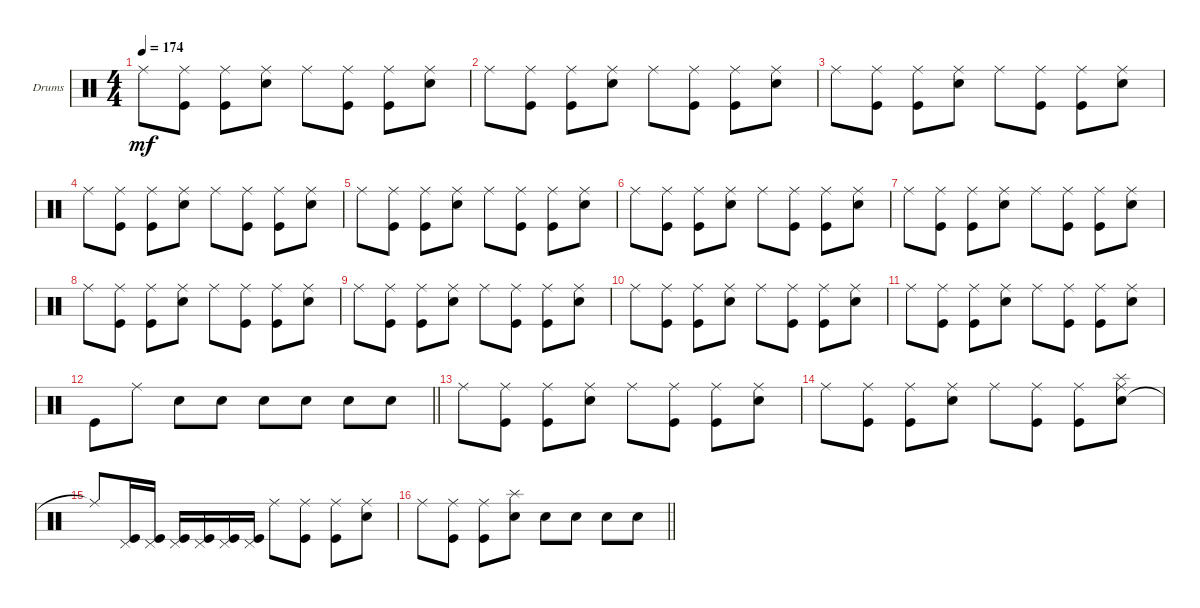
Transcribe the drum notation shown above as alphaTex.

\bracketExtendMode groupsimilarinstruments
\firstSystemTrackNameOrientation horizontal
\otherSystemsTrackNameOrientation horizontal
\track ("Drumkit" "Drums") {instrument percussion}
\staff {score}
\articulation defaults
\ts (4 4)
\tempo 174
\clef neutral
\scale
0.333333
\ks c "Ride (middle)".8{dy mf}
("Kick (hit)" "Ride (middle)").8 ("Kick (hit)" "Ride (middle)").8 ("Snare (hit) 2" "Ride (middle)").8 "Ride (middle)".8 ("Ride (middle)" "Kick (hit)").8 ("Kick (hit)" "Ride (middle)").8 ("Snare (hit) 2" "Ride (middle)").8 |
\scale
0.333333 "Ride (middle)".8 ("Kick (hit)" "Ride (middle)").8 ("Kick (hit)" "Ride (middle)").8 ("Snare (hit) 2" "Ride (middle)").8 "Ride (middle)".8 ("Ride (middle)" "Kick (hit)").8 ("Kick (hit)" "Ride (middle)").8 ("Snare (hit) 2" "Ride (middle)").8 |
\scale
0.333333 "Ride (middle)".8 ("Kick (hit)" "Ride (middle)").8 ("Kick (hit)" "Ride (middle)").8 ("Snare (hit) 2" "Ride (middle)").8 "Ride (middle)".8 ("Ride (middle)" "Kick (hit)").8 ("Kick (hit)" "Ride (middle)").8 ("Snare (hit) 2" "Ride (middle)").8 |
\scale
0.333333 "Ride (middle)".8 ("Kick (hit)" "Ride (middle)").8 ("Kick (hit)" "Ride (middle)").8 ("Snare (hit) 2" "Ride (middle)").8 "Ride (middle)".8 ("Ride (middle)" "Kick (hit)").8 ("Kick (hit)" "Ride (middle)").8 ("Snare (hit) 2" "Ride (middle)").8 |
\scale
0.333333 "Ride (middle)".8 ("Kick (hit)" "Ride (middle)").8 ("Kick (hit)" "Ride (middle)").8 ("Snare (hit) 2" "Ride (middle)").8 "Ride (middle)".8 ("Ride (middle)" "Kick (hit)").8 ("Kick (hit)" "Ride (middle)").8 ("Snare (hit) 2" "Ride (middle)").8 |
\scale
0.333333 "Ride (middle)".8 ("Kick (hit)" "Ride (middle)").8 ("Kick (hit)" "Ride (middle)").8 ("Snare (hit) 2" "Ride (middle)").8 "Ride (middle)".8 ("Ride (middle)" "Kick (hit)").8 ("Kick (hit)" "Ride (middle)").8 ("Snare (hit) 2" "Ride (middle)").8 |
\scale
0.333333 "Ride (middle)".8 ("Kick (hit)" "Ride (middle)").8 ("Kick (hit)" "Ride (middle)").8 ("Snare (hit) 2" "Ride (middle)").8 "Ride (middle)".8 ("Ride (middle)" "Kick (hit)").8 ("Kick (hit)" "Ride (middle)").8 ("Snare (hit) 2" "Ride (middle)").8 |
\scale
0.333333 "Ride (middle)".8 ("Kick (hit)" "Ride (middle)").8 ("Kick (hit)" "Ride (middle)").8 ("Snare (hit) 2" "Ride (middle)").8 "Ride (middle)".8 ("Ride (middle)" "Kick (hit)").8 ("Kick (hit)" "Ride (middle)").8 ("Snare (hit) 2" "Ride (middle)").8 |
\scale
0.333333 "Ride (middle)".8 ("Kick (hit)" "Ride (middle)").8 ("Kick (hit)" "Ride (middle)").8 ("Snare (hit) 2" "Ride (middle)").8 "Ride (middle)".8 ("Ride (middle)" "Kick (hit)").8 ("Kick (hit)" "Ride (middle)").8 ("Snare (hit) 2" "Ride (middle)").8 |
\scale
0.333333 "Ride (middle)".8 ("Kick (hit)" "Ride (middle)").8 ("Kick (hit)" "Ride (middle)").8 ("Snare (hit) 2" "Ride (middle)").8 "Ride (middle)".8 ("Ride (middle)" "Kick (hit)").8 ("Kick (hit)" "Ride (middle)").8 ("Snare (hit) 2" "Ride (middle)").8 |
\scale
0.333333 "Ride (middle)".8 ("Kick (hit)" "Ride (middle)").8 ("Kick (hit)" "Ride (middle)").8 ("Snare (hit) 2" "Ride (middle)").8 "Ride (middle)".8 ("Ride (middle)" "Kick (hit)").8 ("Kick (hit)" "Ride (middle)").8 ("Snare (hit) 2" "Ride (middle)").8 |
\scale
0.333333
\barLineRight lightlight "Kick (hit)".8 "Ride (middle)".8 "Snare (hit) 2".8 "Snare (hit) 2".8 "Snare (hit) 2".8 "Snare (hit) 2".8 "Snare (hit) 2".8 "Snare (hit) 2".8
|
\scale
0.333333 "Ride (middle)".8 ("Kick (hit)" "Ride (middle)").8 ("Kick (hit)" "Ride (middle)").8 ("Snare (hit) 2" "Ride (middle)").8 "Ride (middle)".8 ("Ride (middle)" "Kick (hit)").8 ("Kick (hit)" "Ride (middle)").8 ("Snare (hit) 2" "Ride (middle)").8 |
\scale
0.333333 "Ride (middle)".8 ("Kick (hit)" "Ride (middle)").8 ("Kick (hit)" "Ride (middle)").8 ("Snare (hit) 2" "Ride (middle)").8 "Ride (middle)".8 ("Ride (middle)" "Kick (hit)").8 ("Kick (hit)" "Ride (middle)").8 ("Snare (hit) 2" "Ride (middle)" "Splash (hit)").8 |
\scale
0.333333 "Ride (middle)"{t}.8 ("Kick (hit)" "Pedal Hi-Hat (hit)").16 ("Kick (hit)" "Pedal Hi-Hat (hit)").16 ("Kick (hit)" "Pedal Hi-Hat (hit)").16 ("Kick (hit)" "Pedal Hi-Hat (hit)").16 ("Kick (hit)" "Pedal Hi-Hat (hit)").16 ("Kick (hit)" "Pedal Hi-Hat (hit)").16 "Ride (middle)".8 ("Kick (hit)" "Ride (middle)").8 ("Kick (hit)" "Ride (middle)").8 ("Snare (hit) 2" "Ride (middle)").8 |
\scale
0.333333
\barLineRight lightlight "Ride (middle)".8
("Kick (hit)" "Ride (middle)").8 ("Kick (hit)" "Ride (middle)").8 ("Snare (hit) 2" "Splash (hit)").8 "Snare (hit) 2".8 "Snare (hit) 2".8 "Snare (hit) 2".8 "Snare (hit) 2".8
